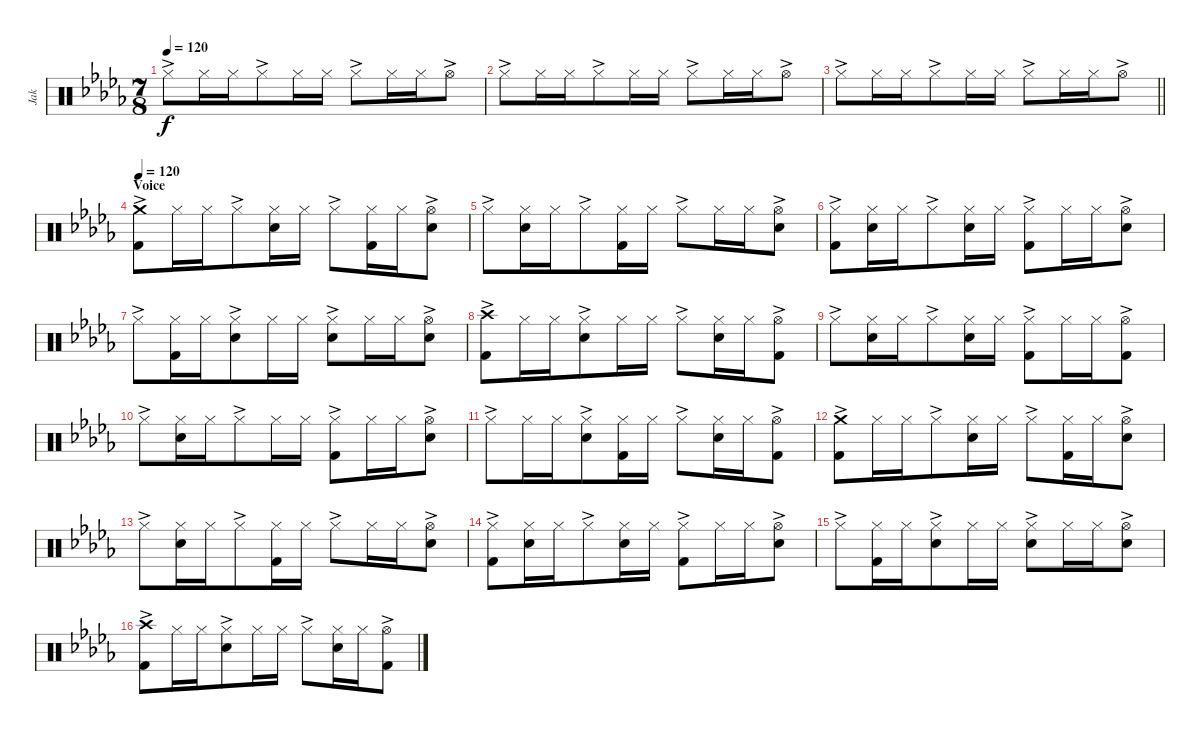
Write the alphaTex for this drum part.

\track ("Jak" "Jak") {instrument percussion}
\staff {score}
\articulation defaults
\ts (7 8)
\tempo 120
\clef neutral
\ks bbminor "Hi-Hat (closed)"{ac}.8{dy f} "Hi-Hat (closed)".16 "Hi-Hat (closed)".16 "Hi-Hat (closed)"{ac}.8 "Hi-Hat (closed)".16 "Hi-Hat (closed)".16 "Hi-Hat (closed)"{ac}.8 "Hi-Hat (closed)".16 "Hi-Hat (closed)".16 "Hi-Hat (open)"{ac}.8
|
"Hi-Hat (closed)"{ac}.8 "Hi-Hat (closed)".16 "Hi-Hat (closed)".16 "Hi-Hat (closed)"{ac}.8 "Hi-Hat (closed)".16 "Hi-Hat (closed)".16 "Hi-Hat (closed)"{ac}.8 "Hi-Hat (closed)".16 "Hi-Hat (closed)".16 "Hi-Hat (open)"{ac}.8 |
\barLineRight lightlight "Hi-Hat (closed)"{ac}.8 "Hi-Hat (closed)".16 "Hi-Hat (closed)".16 "Hi-Hat (closed)"{ac}.8 "Hi-Hat (closed)".16 "Hi-Hat (closed)".16 "Hi-Hat (closed)"{ac}.8 "Hi-Hat (closed)".16 "Hi-Hat (closed)".16 "Hi-Hat (open)"{ac}.8
|
\section ("" "Voice")
\tempo 120
("Crash medium (hit)"{ac} "Kick (hit) 2").8 "Hi-Hat (closed)".16 "Hi-Hat (closed)".16 "Hi-Hat (closed)"{ac}.8 ("Hi-Hat (closed)" "Snare (hit) 2").16 "Hi-Hat (closed)".16 "Hi-Hat (closed)"{ac}.8 ("Hi-Hat (closed)" "Kick (hit) 2").16 "Hi-Hat (closed)".16 ("Hi-Hat (open)"{ac} "Snare (hit) 2").8 |
"Hi-Hat (closed)"{ac}.8 ("Hi-Hat (closed)" "Snare (hit) 2").16 "Hi-Hat (closed)".16 "Hi-Hat (closed)"{ac}.8 ("Hi-Hat (closed)" "Kick (hit) 2").16 "Hi-Hat (closed)".16 "Hi-Hat (closed)"{ac}.8 "Hi-Hat (closed)".16 "Hi-Hat (closed)".16 ("Hi-Hat (open)"{ac} "Snare (hit) 2").8 |
("Hi-Hat (closed)"{ac} "Kick (hit) 2").8 ("Hi-Hat (closed)" "Snare (hit) 2").16 "Hi-Hat (closed)".16 "Hi-Hat (closed)"{ac}.8 ("Hi-Hat (closed)" "Snare (hit) 2").16 "Hi-Hat (closed)".16 ("Hi-Hat (closed)"{ac} "Kick (hit) 2").8 "Hi-Hat (closed)".16 "Hi-Hat (closed)".16 ("Hi-Hat (open)"{ac} "Snare (hit) 2").8 |
"Hi-Hat (closed)"{ac}.8 ("Hi-Hat (closed)" "Kick (hit) 2").16 "Hi-Hat (closed)".16 ("Hi-Hat (closed)"{ac} "Snare (hit) 2").8 "Hi-Hat (closed)".16 "Hi-Hat (closed)".16 ("Hi-Hat (closed)"{ac} "Snare (hit) 2").8 "Hi-Hat (closed)".16 "Hi-Hat (closed)".16 ("Hi-Hat (open)"{ac} "Snare (hit) 2").8 |
("Crash high (hit)"{ac} "Kick (hit) 2").8 "Hi-Hat (closed)".16 "Hi-Hat (closed)".16 ("Hi-Hat (closed)"{ac} "Snare (hit) 2").8 "Hi-Hat (closed)".16 "Hi-Hat (closed)".16 "Hi-Hat (closed)"{ac}.8 ("Hi-Hat (closed)" "Snare (hit) 2").16 "Hi-Hat (closed)".16 ("Hi-Hat (open)"{ac} "Kick (hit) 2").8 |
"Hi-Hat (closed)"{ac}.8 ("Hi-Hat (closed)" "Snare (hit) 2").16 "Hi-Hat (closed)".16 "Hi-Hat (closed)"{ac}.8 ("Hi-Hat (closed)" "Snare (hit) 2").16 "Hi-Hat (closed)".16 ("Hi-Hat (closed)"{ac} "Kick (hit) 2").8 "Hi-Hat (closed)".16 "Hi-Hat (closed)".16 ("Hi-Hat (open)"{ac} "Kick (hit) 2").8 |
"Hi-Hat (closed)"{ac}.8 ("Hi-Hat (closed)" "Snare (hit) 2").16 "Hi-Hat (closed)".16 "Hi-Hat (closed)"{ac}.8 "Hi-Hat (closed)".16 "Hi-Hat (closed)".16 ("Hi-Hat (closed)"{ac} "Kick (hit) 2").8 "Hi-Hat (closed)".16 "Hi-Hat (closed)".16 ("Hi-Hat (open)"{ac} "Snare (hit) 2").8 |
"Hi-Hat (closed)"{ac}.8 "Hi-Hat (closed)".16 "Hi-Hat (closed)".16 ("Hi-Hat (closed)"{ac} "Snare (hit) 2").8 ("Hi-Hat (closed)" "Kick (hit) 2").16 "Hi-Hat (closed)".16 "Hi-Hat (closed)"{ac}.8 ("Hi-Hat (closed)" "Snare (hit) 2").16 "Hi-Hat (closed)".16 ("Hi-Hat (open)"{ac} "Kick (hit) 2").8 |
("Crash medium (hit)"{ac} "Kick (hit) 2").8 "Hi-Hat (closed)".16 "Hi-Hat (closed)".16 "Hi-Hat (closed)"{ac}.8 ("Hi-Hat (closed)" "Snare (hit) 2").16 "Hi-Hat (closed)".16 "Hi-Hat (closed)"{ac}.8 ("Hi-Hat (closed)" "Kick (hit) 2").16 "Hi-Hat (closed)".16 ("Hi-Hat (open)"{ac} "Snare (hit) 2").8 |
"Hi-Hat (closed)"{ac}.8 ("Hi-Hat (closed)" "Snare (hit) 2").16 "Hi-Hat (closed)".16 "Hi-Hat (closed)"{ac}.8 ("Hi-Hat (closed)" "Kick (hit) 2").16 "Hi-Hat (closed)".16 "Hi-Hat (closed)"{ac}.8 "Hi-Hat (closed)".16 "Hi-Hat (closed)".16 ("Hi-Hat (open)"{ac} "Snare (hit) 2").8 |
("Hi-Hat (closed)"{ac} "Kick (hit) 2").8 ("Hi-Hat (closed)" "Snare (hit) 2").16 "Hi-Hat (closed)".16 "Hi-Hat (closed)"{ac}.8 ("Hi-Hat (closed)" "Snare (hit) 2").16 "Hi-Hat (closed)".16 ("Hi-Hat (closed)"{ac} "Kick (hit) 2").8 "Hi-Hat (closed)".16 "Hi-Hat (closed)".16 ("Hi-Hat (open)"{ac} "Snare (hit) 2").8 |
"Hi-Hat (closed)"{ac}.8 ("Hi-Hat (closed)" "Kick (hit) 2").16 "Hi-Hat (closed)".16 ("Hi-Hat (closed)"{ac} "Snare (hit) 2").8 "Hi-Hat (closed)".16 "Hi-Hat (closed)".16 ("Hi-Hat (closed)"{ac} "Snare (hit) 2").8 "Hi-Hat (closed)".16 "Hi-Hat (closed)".16 ("Hi-Hat (open)"{ac} "Snare (hit) 2").8 |
("Crash high (hit)"{ac} "Kick (hit) 2").8 "Hi-Hat (closed)".16 "Hi-Hat (closed)".16 ("Hi-Hat (closed)"{ac} "Snare (hit) 2").8 "Hi-Hat (closed)".16 "Hi-Hat (closed)".16 "Hi-Hat (closed)"{ac}.8 ("Hi-Hat (closed)" "Snare (hit) 2").16 "Hi-Hat (closed)".16 ("Hi-Hat (open)"{ac} "Kick (hit) 2").8
